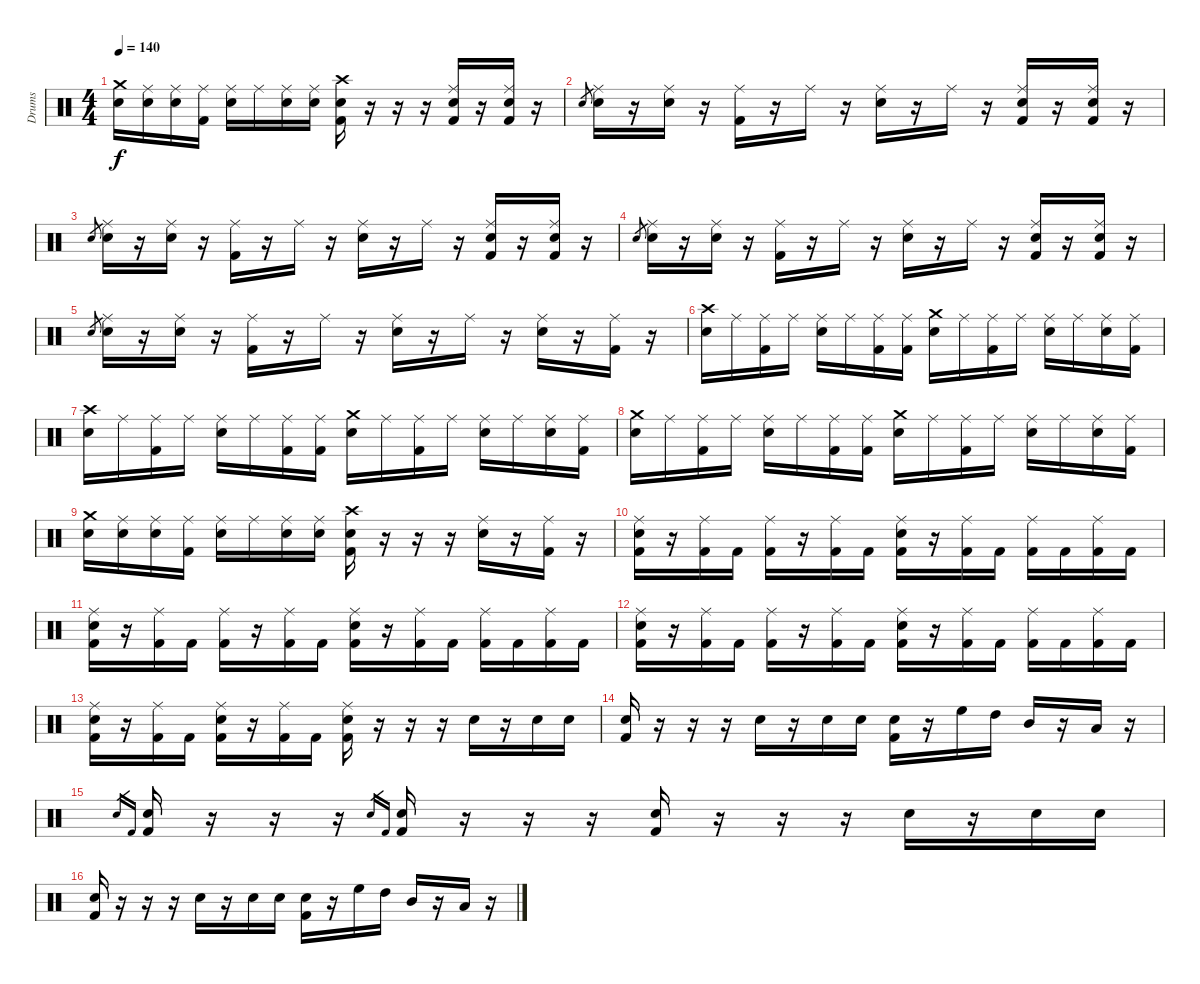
\track ("Drums" "Drums") {instrument percussion}
\staff {score}
\articulation defaults
\ts (4 4)
\tempo 140
\clef neutral
\ks c
("Crash medium (hit)" "Snare (hit) 2").16{dy f} ("Ride (middle)" "Snare (hit) 2").16 ("Ride (middle)" "Snare (hit) 2").16 ("Ride (middle)" "Kick (hit) 2").16 ("Ride (middle)" "Snare (hit) 2").16 "Ride (middle)".16 ("Ride (middle)" "Snare (hit) 2").16 ("Ride (middle)" "Snare (hit) 2").16 ("Crash high (hit)" "Snare (hit) 2" "Kick (hit) 2").16 r.16 r.16 r.16 ("Ride (middle)" "Snare (hit) 2" "Kick (hit) 2").16 r.16 ("Ride (middle)" "Snare (hit) 2" "Kick (hit) 2").16 r.16 |
"Snare (hit) 2".8{gr} ("Ride (middle)" "Snare (hit) 2").16 r.16 ("Ride (middle)" "Snare (hit) 2").16 r.16 ("Ride (middle)" "Kick (hit) 2").16 r.16 "Ride (middle)".16 r.16 ("Ride (middle)" "Snare (hit) 2").16 r.16 "Ride (middle)".16 r.16 ("Ride (middle)" "Snare (hit) 2" "Kick (hit) 2").16 r.16 ("Ride (middle)" "Snare (hit) 2" "Kick (hit) 2").16 r.16 |
"Snare (hit) 2".8{gr} ("Ride (middle)" "Snare (hit) 2").16 r.16 ("Ride (middle)" "Snare (hit) 2").16 r.16 ("Ride (middle)" "Kick (hit) 2").16 r.16 "Ride (middle)".16 r.16 ("Ride (middle)" "Snare (hit) 2").16 r.16 "Ride (middle)".16 r.16 ("Ride (middle)" "Snare (hit) 2" "Kick (hit) 2").16 r.16 ("Ride (middle)" "Snare (hit) 2" "Kick (hit) 2").16 r.16 |
"Snare (hit) 2".8{gr} ("Ride (middle)" "Snare (hit) 2").16 r.16 ("Ride (middle)" "Snare (hit) 2").16 r.16 ("Ride (middle)" "Kick (hit) 2").16 r.16 "Ride (middle)".16 r.16 ("Ride (middle)" "Snare (hit) 2").16 r.16 "Ride (middle)".16 r.16 ("Ride (middle)" "Snare (hit) 2" "Kick (hit) 2").16 r.16 ("Ride (middle)" "Snare (hit) 2" "Kick (hit) 2").16 r.16 |
"Snare (hit) 2".8{gr} ("Ride (middle)" "Snare (hit) 2").16 r.16 ("Ride (middle)" "Snare (hit) 2").16 r.16 ("Ride (middle)" "Kick (hit) 2").16 r.16 "Ride (middle)".16 r.16 ("Ride (middle)" "Snare (hit) 2").16 r.16 "Ride (middle)".16 r.16 ("Ride (middle)" "Snare (hit) 2").16 r.16 ("Ride (middle)" "Kick (hit) 2").16 r.16 |
("Crash high (hit)" "Snare (hit) 2").16 "Ride (middle)".16 ("Ride (middle)" "Kick (hit) 2").16 "Ride (middle)".16 ("Ride (middle)" "Snare (hit) 2").16 "Ride (middle)".16 ("Ride (middle)" "Kick (hit) 2").16 ("Ride (middle)" "Kick (hit) 2").16 ("Crash medium (hit)" "Snare (hit) 2").16 "Ride (middle)".16 ("Ride (middle)" "Kick (hit) 2").16 "Ride (middle)".16 ("Ride (middle)" "Snare (hit) 2").16 "Ride (middle)".16 ("Ride (middle)" "Snare (hit) 2").16 ("Ride (middle)" "Kick (hit) 2").16 |
("Crash high (hit)" "Snare (hit) 2").16 "Ride (middle)".16 ("Ride (middle)" "Kick (hit) 2").16 "Ride (middle)".16 ("Ride (middle)" "Snare (hit) 2").16 "Ride (middle)".16 ("Ride (middle)" "Kick (hit) 2").16 ("Ride (middle)" "Kick (hit) 2").16 ("Crash medium (hit)" "Snare (hit) 2").16 "Ride (middle)".16 ("Ride (middle)" "Kick (hit) 2").16 "Ride (middle)".16 ("Ride (middle)" "Snare (hit) 2").16 "Ride (middle)".16 ("Ride (middle)" "Snare (hit) 2").16 ("Ride (middle)" "Kick (hit) 2").16 |
("Crash medium (hit)" "Snare (hit) 2").16 "Ride (middle)".16 ("Ride (middle)" "Kick (hit) 2").16 "Ride (middle)".16 ("Ride (middle)" "Snare (hit) 2").16 "Ride (middle)".16 ("Ride (middle)" "Kick (hit) 2").16 ("Ride (middle)" "Kick (hit) 2").16 ("Crash medium (hit)" "Snare (hit) 2").16 "Ride (middle)".16 ("Ride (middle)" "Kick (hit) 2").16 "Ride (middle)".16 ("Ride (middle)" "Snare (hit) 2").16 "Ride (middle)".16 ("Ride (middle)" "Snare (hit) 2").16 ("Ride (middle)" "Kick (hit) 2").16 |
("Crash medium (hit)" "Snare (hit) 2").16 ("Ride (middle)" "Snare (hit) 2").16 ("Ride (middle)" "Snare (hit) 2").16 ("Ride (middle)" "Kick (hit) 2").16 ("Ride (middle)" "Snare (hit) 2").16 "Ride (middle)".16 ("Ride (middle)" "Snare (hit) 2").16 ("Ride (middle)" "Snare (hit) 2").16 ("Crash high (hit)" "Snare (hit) 2" "Kick (hit) 2").16 r.16 r.16 r.16 ("Ride (middle)" "Snare (hit) 2").16 r.16 ("Ride (middle)" "Kick (hit) 2").16 r.16 |
("Ride (middle)" "Snare (hit) 2" "Kick (hit) 2").16 r.16 ("Ride (middle)" "Kick (hit) 2").16 "Kick (hit) 2".16 ("Ride (middle)" "Kick (hit) 2").16 r.16 ("Ride (middle)" "Kick (hit) 2").16 "Kick (hit) 2".16 ("Ride (middle)" "Snare (hit) 2" "Kick (hit) 2").16 r.16 ("Ride (middle)" "Kick (hit) 2").16 "Kick (hit) 2".16 ("Ride (middle)" "Kick (hit) 2").16 "Kick (hit) 2".16 ("Ride (middle)" "Kick (hit) 2").16 "Kick (hit) 2".16 |
("Ride (middle)" "Snare (hit) 2" "Kick (hit) 2").16 r.16 ("Ride (middle)" "Kick (hit) 2").16 "Kick (hit) 2".16 ("Ride (middle)" "Kick (hit) 2").16 r.16 ("Ride (middle)" "Kick (hit) 2").16 "Kick (hit) 2".16 ("Ride (middle)" "Snare (hit) 2" "Kick (hit) 2").16 r.16 ("Ride (middle)" "Kick (hit) 2").16 "Kick (hit) 2".16 ("Ride (middle)" "Kick (hit) 2").16 "Kick (hit) 2".16 ("Ride (middle)" "Kick (hit) 2").16 "Kick (hit) 2".16 |
("Ride (middle)" "Snare (hit) 2" "Kick (hit) 2").16 r.16 ("Ride (middle)" "Kick (hit) 2").16 "Kick (hit) 2".16 ("Ride (middle)" "Kick (hit) 2").16 r.16 ("Ride (middle)" "Kick (hit) 2").16 "Kick (hit) 2".16 ("Ride (middle)" "Snare (hit) 2" "Kick (hit) 2").16 r.16 ("Ride (middle)" "Kick (hit) 2").16 "Kick (hit) 2".16 ("Ride (middle)" "Kick (hit) 2").16 "Kick (hit) 2".16 ("Ride (middle)" "Kick (hit) 2").16 "Kick (hit) 2".16 |
("Ride (middle)" "Snare (hit) 2" "Kick (hit) 2").16 r.16 ("Ride (middle)" "Kick (hit) 2").16 "Kick (hit) 2".16 ("Ride (middle)" "Snare (hit) 2" "Kick (hit) 2").16 r.16 ("Ride (middle)" "Kick (hit) 2").16 "Kick (hit) 2".16 ("Ride (middle)" "Electric Snare (hit)" "Kick (hit) 2").16 r.16 r.16 r.16 "Snare (hit) 2".16 r.16 "Snare (hit) 2".16 "Snare (hit) 2".16 |
("Snare (hit) 2" "Kick (hit) 2").16 r.16 r.16 r.16 "Snare (hit) 2".16 r.16 "Snare (hit) 2".16 "Snare (hit) 2".16 ("Snare (hit) 2" "Kick (hit) 2").16 r.16 "High Floor Tom (hit)".16 "High Tom (hit)".16 "Mid Tom (hit)".16 r.16 "Low Tom (hit)".16 r.16 |
"Snare (hit) 2".16{gr} "Kick (hit) 2".16{gr} ("Snare (hit) 2" "Kick (hit) 2").16 r.16 r.16 r.16 "Snare (hit) 2".16{gr} "Kick (hit) 2".16{gr} ("Snare (hit) 2" "Kick (hit) 2").16 r.16 r.16 r.16 ("Snare (hit) 2" "Kick (hit) 2").16 r.16 r.16 r.16 "Snare (hit) 2".16 r.16 "Snare (hit) 2".16 "Snare (hit) 2".16 |
("Snare (hit) 2" "Kick (hit) 2").16 r.16 r.16 r.16 "Snare (hit) 2".16 r.16 "Snare (hit) 2".16 "Snare (hit) 2".16 ("Snare (hit) 2" "Kick (hit) 2").16 r.16 "High Floor Tom (hit)".16 "High Tom (hit)".16 "Mid Tom (hit)".16 r.16 "Low Tom (hit)".16 r.16
